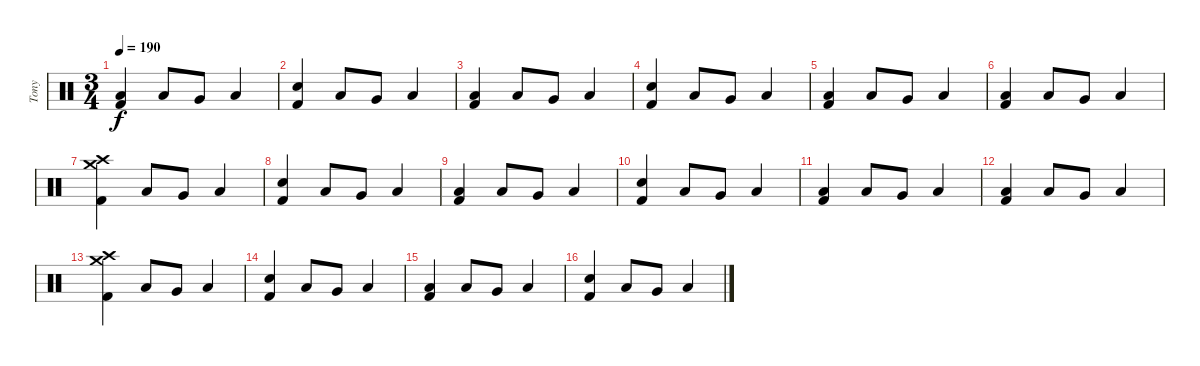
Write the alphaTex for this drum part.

\track ("Tony" "Tony") {instrument percussion}
\staff {score}
\articulation defaults
\ts (3 4)
\tempo 190
\clef neutral
\ks c
("Low Tom (hit)" "Kick (hit) 2").4{dy f} "Low Tom (hit)".8 "Very Low Tom (hit)".8 "Low Tom (hit)".4 |
("Snare (hit) 2" "Kick (hit) 2").4 "Low Tom (hit)".8 "Very Low Tom (hit)".8 "Low Tom (hit)".4 |
("Low Tom (hit)" "Kick (hit) 2").4 "Low Tom (hit)".8 "Very Low Tom (hit)".8 "Low Tom (hit)".4 |
("Snare (hit) 2" "Kick (hit) 2").4 "Low Tom (hit)".8 "Very Low Tom (hit)".8 "Low Tom (hit)".4 |
("Low Tom (hit)" "Kick (hit) 2").4 "Low Tom (hit)".8 "Very Low Tom (hit)".8 "Low Tom (hit)".4 |
("Low Tom (hit)" "Kick (hit) 2").4 "Low Tom (hit)".8 "Very Low Tom (hit)".8 "Low Tom (hit)".4 |
("Crash high (hit)" "Crash medium (hit)" "Kick (hit) 2").4 "Low Tom (hit)".8 "Very Low Tom (hit)".8 "Low Tom (hit)".4 |
("Snare (hit) 2" "Kick (hit) 2").4 "Low Tom (hit)".8 "Very Low Tom (hit)".8 "Low Tom (hit)".4 |
("Low Tom (hit)" "Kick (hit) 2").4 "Low Tom (hit)".8 "Very Low Tom (hit)".8 "Low Tom (hit)".4 |
("Snare (hit) 2" "Kick (hit) 2").4 "Low Tom (hit)".8 "Very Low Tom (hit)".8 "Low Tom (hit)".4 |
("Low Tom (hit)" "Kick (hit) 2").4 "Low Tom (hit)".8 "Very Low Tom (hit)".8 "Low Tom (hit)".4 |
("Low Tom (hit)" "Kick (hit) 2").4 "Low Tom (hit)".8 "Very Low Tom (hit)".8 "Low Tom (hit)".4 |
("Crash high (hit)" "Crash medium (hit)" "Kick (hit) 2").4 "Low Tom (hit)".8 "Very Low Tom (hit)".8 "Low Tom (hit)".4 |
("Snare (hit) 2" "Kick (hit) 2").4 "Low Tom (hit)".8 "Very Low Tom (hit)".8 "Low Tom (hit)".4 |
("Low Tom (hit)" "Kick (hit) 2").4 "Low Tom (hit)".8 "Very Low Tom (hit)".8 "Low Tom (hit)".4 |
("Snare (hit) 2" "Kick (hit) 2").4 "Low Tom (hit)".8 "Very Low Tom (hit)".8 "Low Tom (hit)".4
